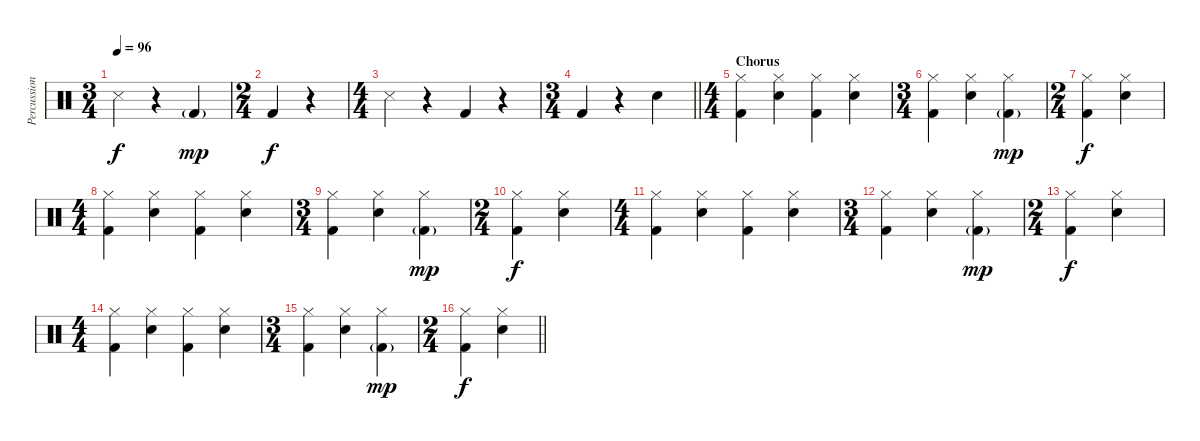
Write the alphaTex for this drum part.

\track ("Percussion" "Percussion") {instrument percussion}
\staff {score}
\articulation defaults
\ts (3 4)
\tempo 96
\clef neutral
\ks c "Snare (side stick) 3".4{dy f}
r.4 "Kick (hit) 2"{g}.4{dy mp} |
\ts (2 4)
"Kick (hit) 2".4{dy f} r.4 |
\ts (4 4)
"Snare (side stick) 3".4 r.4 "Kick (hit) 2".4 r.4 |
\ts (3 4)
\barLineRight lightlight "Kick (hit) 2".4
r.4 "Snare (hit) 2".4 |
\ts (4 4)
\section ("" "Chorus")
("Hi-Hat (closed)" "Kick (hit) 2").4 ("Hi-Hat (closed)" "Snare (hit) 2").4 ("Hi-Hat (closed)" "Kick (hit) 2").4 ("Hi-Hat (closed)" "Snare (hit) 2").4 |
\ts (3 4)
("Hi-Hat (closed)" "Kick (hit) 2").4 ("Hi-Hat (closed)" "Snare (hit) 2").4 ("Hi-Hat (closed)" "Kick (hit) 2"{g}).4{dy mp} |
\ts (2 4)
("Hi-Hat (closed)" "Kick (hit) 2").4{dy f} ("Hi-Hat (closed)" "Snare (hit) 2").4 |
\ts (4 4)
("Hi-Hat (closed)" "Kick (hit) 2").4 ("Hi-Hat (closed)" "Snare (hit) 2").4 ("Hi-Hat (closed)" "Kick (hit) 2").4 ("Hi-Hat (closed)" "Snare (hit) 2").4 |
\ts (3 4)
("Hi-Hat (closed)" "Kick (hit) 2").4 ("Hi-Hat (closed)" "Snare (hit) 2").4 ("Hi-Hat (closed)" "Kick (hit) 2"{g}).4{dy mp} |
\ts (2 4)
("Hi-Hat (closed)" "Kick (hit) 2").4{dy f} ("Hi-Hat (closed)" "Snare (hit) 2").4 |
\ts (4 4)
("Hi-Hat (closed)" "Kick (hit) 2").4 ("Hi-Hat (closed)" "Snare (hit) 2").4 ("Hi-Hat (closed)" "Kick (hit) 2").4 ("Hi-Hat (closed)" "Snare (hit) 2").4 |
\ts (3 4)
("Hi-Hat (closed)" "Kick (hit) 2").4 ("Hi-Hat (closed)" "Snare (hit) 2").4 ("Hi-Hat (closed)" "Kick (hit) 2"{g}).4{dy mp} |
\ts (2 4)
("Hi-Hat (closed)" "Kick (hit) 2").4{dy f} ("Hi-Hat (closed)" "Snare (hit) 2").4 |
\ts (4 4)
("Hi-Hat (closed)" "Kick (hit) 2").4 ("Hi-Hat (closed)" "Snare (hit) 2").4 ("Hi-Hat (closed)" "Kick (hit) 2").4 ("Hi-Hat (closed)" "Snare (hit) 2").4 |
\ts (3 4)
("Hi-Hat (closed)" "Kick (hit) 2").4 ("Hi-Hat (closed)" "Snare (hit) 2").4 ("Hi-Hat (closed)" "Kick (hit) 2"{g}).4{dy mp} |
\ts (2 4)
\barLineRight lightlight
("Hi-Hat (closed)" "Kick (hit) 2").4{dy f} ("Hi-Hat (closed)" "Snare (hit) 2").4
